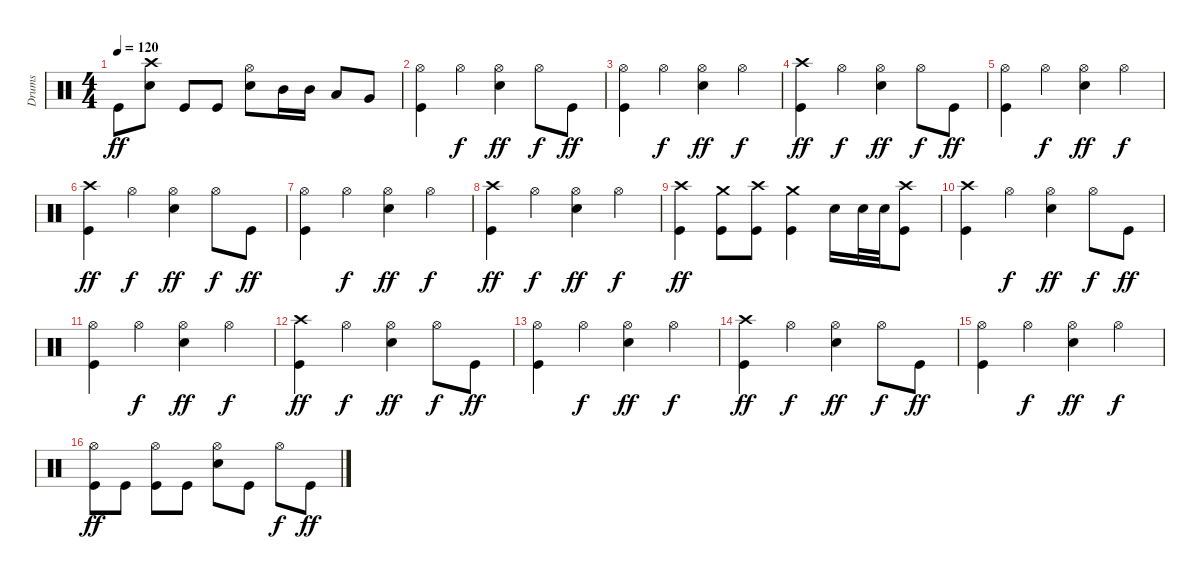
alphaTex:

\track ("Drums" "Drums") {instrument percussion}
\staff {score}
\articulation defaults
\ts (4 4)
\tempo 120
\clef neutral
\ks c "Kick (hit)".8{dy ff}
("Crash high (hit)" "Electric Snare (hit)").8 "Kick (hit)".8 "Kick (hit)".8 ("Hi-Hat (open)" "Electric Snare (hit)").8 "Mid Tom (hit)".16 "Mid Tom (hit)".16 "Low Tom (hit)".8 "Very Low Tom (hit)".8 |
("Hi-Hat (open)" "Kick (hit)").4 "Hi-Hat (open)".4{dy f} ("Hi-Hat (open)" "Electric Snare (hit)").4{dy ff} "Hi-Hat (open)".8{dy f} "Kick (hit)".8{dy ff} |
("Hi-Hat (open)" "Kick (hit)").4 "Hi-Hat (open)".4{dy f} ("Hi-Hat (open)" "Electric Snare (hit)").4{dy ff} "Hi-Hat (open)".4{dy f} |
("Crash high (hit)" "Kick (hit)").4{dy ff} "Hi-Hat (open)".4{dy f} ("Hi-Hat (open)" "Electric Snare (hit)").4{dy ff} "Hi-Hat (open)".8{dy f} "Kick (hit)".8{dy ff} |
("Hi-Hat (open)" "Kick (hit)").4 "Hi-Hat (open)".4{dy f} ("Hi-Hat (open)" "Electric Snare (hit)").4{dy ff} "Hi-Hat (open)".4{dy f} |
("Crash high (hit)" "Kick (hit)").4{dy ff} "Hi-Hat (open)".4{dy f} ("Hi-Hat (open)" "Electric Snare (hit)").4{dy ff} "Hi-Hat (open)".8{dy f} "Kick (hit)".8{dy ff} |
("Hi-Hat (open)" "Kick (hit)").4 "Hi-Hat (open)".4{dy f} ("Hi-Hat (open)" "Electric Snare (hit)").4{dy ff} "Hi-Hat (open)".4{dy f} |
("Crash high (hit)" "Kick (hit)").4{dy ff} "Hi-Hat (open)".4{dy f} ("Hi-Hat (open)" "Electric Snare (hit)").4{dy ff} "Hi-Hat (open)".4{dy f} |
("Crash high (hit)" "Kick (hit)").4{dy ff} ("Crash medium (hit)" "Kick (hit)").8 ("Crash high (hit)" "Kick (hit)").8 ("Crash medium (hit)" "Kick (hit)").4 "Electric Snare (hit)".16 "Electric Snare (hit)".32 "Electric Snare (hit)".32 ("Crash high (hit)" "Kick (hit)").8 |
("Crash high (hit)" "Kick (hit)").4 "Hi-Hat (open)".4{dy f} ("Hi-Hat (open)" "Electric Snare (hit)").4{dy ff} "Hi-Hat (open)".8{dy f} "Kick (hit)".8{dy ff} |
("Hi-Hat (open)" "Kick (hit)").4 "Hi-Hat (open)".4{dy f} ("Hi-Hat (open)" "Electric Snare (hit)").4{dy ff} "Hi-Hat (open)".4{dy f} |
("Crash high (hit)" "Kick (hit)").4{dy ff} "Hi-Hat (open)".4{dy f} ("Hi-Hat (open)" "Electric Snare (hit)").4{dy ff} "Hi-Hat (open)".8{dy f} "Kick (hit)".8{dy ff} |
("Hi-Hat (open)" "Kick (hit)").4 "Hi-Hat (open)".4{dy f} ("Hi-Hat (open)" "Electric Snare (hit)").4{dy ff} "Hi-Hat (open)".4{dy f} |
("Crash high (hit)" "Kick (hit)").4{dy ff} "Hi-Hat (open)".4{dy f} ("Hi-Hat (open)" "Electric Snare (hit)").4{dy ff} "Hi-Hat (open)".8{dy f} "Kick (hit)".8{dy ff} |
("Hi-Hat (open)" "Kick (hit)").4 "Hi-Hat (open)".4{dy f} ("Hi-Hat (open)" "Electric Snare (hit)").4{dy ff} "Hi-Hat (open)".4{dy f} |
("Hi-Hat (open)" "Kick (hit)").8{dy ff} "Kick (hit)".8 ("Hi-Hat (open)" "Kick (hit)").8 "Kick (hit)".8 ("Hi-Hat (open)" "Electric Snare (hit)").8 "Kick (hit)".8 "Hi-Hat (open)".8{dy f} "Kick (hit)".8{dy ff}
